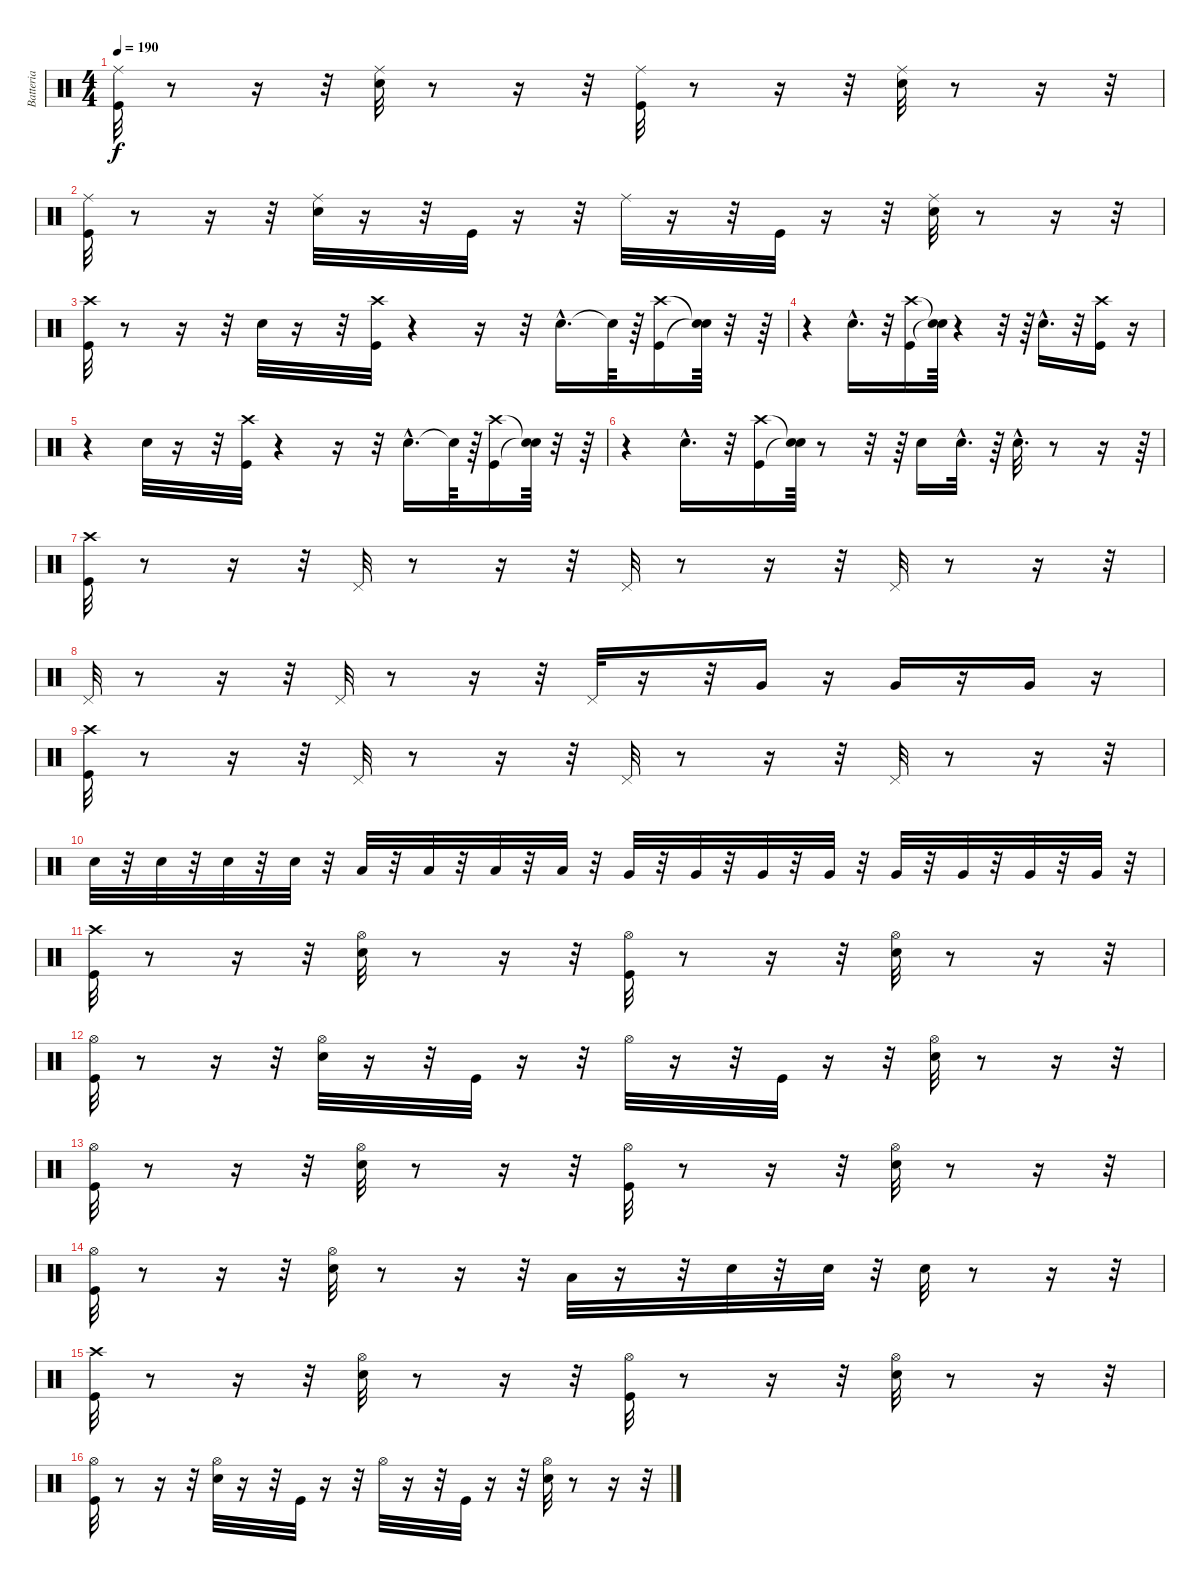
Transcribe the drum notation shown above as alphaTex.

\track ("Batteria" "Batteria") {instrument percussion}
\staff {score}
\articulation defaults
\ts (4 4)
\tempo 190
\clef neutral
\ks c
("Ride (middle)" "Kick (hit)").32{dy f} r.8 r.16 r.32 ("Snare (hit) 2" "Ride (middle)").32 r.8 r.16 r.32 ("Ride (middle)" "Kick (hit)").32 r.8 r.16 r.32 ("Ride (middle)" "Snare (hit) 2").32 r.8 r.16 r.32 |
("Ride (middle)" "Kick (hit)").32 r.8 r.16 r.32 ("Snare (hit) 2" "Ride (middle)").32 r.16 r.32 "Kick (hit)".32 r.16 r.32 "Ride (middle)".32 r.16 r.32 "Kick (hit)".32 r.16 r.32 ("Ride (middle)" "Snare (hit) 2").32 r.8 r.16 r.32 |
("Kick (hit)" "Crash high (hit)").32 r.8 r.16 r.32 "Snare (hit) 2".32 r.16 r.32 ("Kick (hit)" "Crash high (hit)").32 r.4 r.16 r.32 "Snare (hit) 2"{hac}.16{d} "Snare (hit)"{t}.64 r.64 ("Kick (hit)" "Crash high (hit)").16 ("Snare (hit)"{t} "Snare (hit)"{t}).64 r.32 r.64 |
r.4 "Snare (hit) 2"{hac}.16{d} r.32 ("Kick (hit)" "Crash high (hit)").16 ("Snare (hit)"{t} "Snare (hit)"{t}).64 r.4 r.32 r.64 "Snare (hit) 2"{hac}.16{d} r.32 ("Kick (hit)" "Crash high (hit)").16 r.16 |
r.4 "Snare (hit) 2".32 r.16 r.32 ("Kick (hit)" "Crash high (hit)").32 r.4 r.16 r.32 "Snare (hit) 2"{hac}.16{d} "Snare (hit)"{t}.64 r.64 ("Kick (hit)" "Crash high (hit)").16 ("Snare (hit)"{t} "Snare (hit)"{t}).64 r.32 r.64 |
r.4 "Snare (hit) 2"{hac}.16{d} r.32 ("Kick (hit)" "Crash high (hit)").16 ("Snare (hit)"{t} "Snare (hit)"{t}).64 r.8 r.32 r.64 "Snare (hit) 2".16 "Snare (hit) 2"{hac}.32{d} r.64 "Snare (hit) 2"{hac}.32{d} r.8 r.16 r.64 |
("Crash high (hit)" "Kick (hit)").32 r.8 r.16 r.32 "Pedal Hi-Hat (hit)".32 r.8 r.16 r.32 "Pedal Hi-Hat (hit)".32 r.8 r.16 r.32 "Pedal Hi-Hat (hit)".32 r.8 r.16 r.32 |
"Pedal Hi-Hat (hit)".32 r.8 r.16 r.32 "Pedal Hi-Hat (hit)".32 r.8 r.16 r.32 "Pedal Hi-Hat (hit)".32 r.16 r.32 "Very Low Tom (hit)".16 r.16 "Very Low Tom (hit)".16 r.16 "Very Low Tom (hit)".16 r.16 |
("Crash high (hit)" "Kick (hit)").32 r.8 r.16 r.32 "Pedal Hi-Hat (hit)".32 r.8 r.16 r.32 "Pedal Hi-Hat (hit)".32 r.8 r.16 r.32 "Pedal Hi-Hat (hit)".32 r.8 r.16 r.32 |
"Snare (hit) 2".32 r.32 "Snare (hit) 2".32 r.32 "Snare (hit) 2".32 r.32 "Snare (hit) 2".32 r.32 "Low Tom (hit)".32 r.32 "Low Tom (hit)".32 r.32 "Low Tom (hit)".32 r.32 "Low Tom (hit)".32 r.32 "Very Low Tom (hit)".32 r.32 "Very Low Tom (hit)".32 r.32 "Very Low Tom (hit)".32 r.32 "Very Low Tom (hit)".32 r.32 "Very Low Tom (hit)".32 r.32 "Very Low Tom (hit)".32 r.32 "Very Low Tom (hit)".32 r.32 "Very Low Tom (hit)".32 r.32 |
("Kick (hit)" "Crash high (hit)").32 r.8 r.16 r.32 ("Hi-Hat (open)" "Snare (hit) 2").32 r.8 r.16 r.32 ("Hi-Hat (open)" "Kick (hit)").32 r.8 r.16 r.32 ("Snare (hit) 2" "Hi-Hat (open)").32 r.8 r.16 r.32 |
("Kick (hit)" "Hi-Hat (open)").32 r.8 r.16 r.32 ("Hi-Hat (open)" "Snare (hit) 2").32 r.16 r.32 "Kick (hit)".32 r.16 r.32 "Hi-Hat (open)".32 r.16 r.32 "Kick (hit)".32 r.16 r.32 ("Hi-Hat (open)" "Snare (hit) 2").32 r.8 r.16 r.32 |
("Hi-Hat (open)" "Kick (hit)").32 r.8 r.16 r.32 ("Snare (hit) 2" "Hi-Hat (open)").32 r.8 r.16 r.32 ("Hi-Hat (open)" "Kick (hit)").32 r.8 r.16 r.32 ("Hi-Hat (open)" "Snare (hit) 2").32 r.8 r.16 r.32 |
("Kick (hit)" "Hi-Hat (open)").32 r.8 r.16 r.32 ("Snare (hit) 2" "Hi-Hat (open)").32 r.8 r.16 r.32 "Low Tom (hit)".32 r.16 r.32 "Snare (hit) 2".32 r.32 "Snare (hit) 2".32 r.32 "Snare (hit) 2".32 r.8 r.16 r.32 |
("Kick (hit)" "Crash high (hit)").32 r.8 r.16 r.32 ("Hi-Hat (open)" "Snare (hit) 2").32 r.8 r.16 r.32 ("Hi-Hat (open)" "Kick (hit)").32 r.8 r.16 r.32 ("Snare (hit) 2" "Hi-Hat (open)").32 r.8 r.16 r.32 |
("Kick (hit)" "Hi-Hat (open)").32 r.8 r.16 r.32 ("Hi-Hat (open)" "Snare (hit) 2").32 r.16 r.32 "Kick (hit)".32 r.16 r.32 "Hi-Hat (open)".32 r.16 r.32 "Kick (hit)".32 r.16 r.32 ("Hi-Hat (open)" "Snare (hit) 2").32 r.8 r.16 r.32
